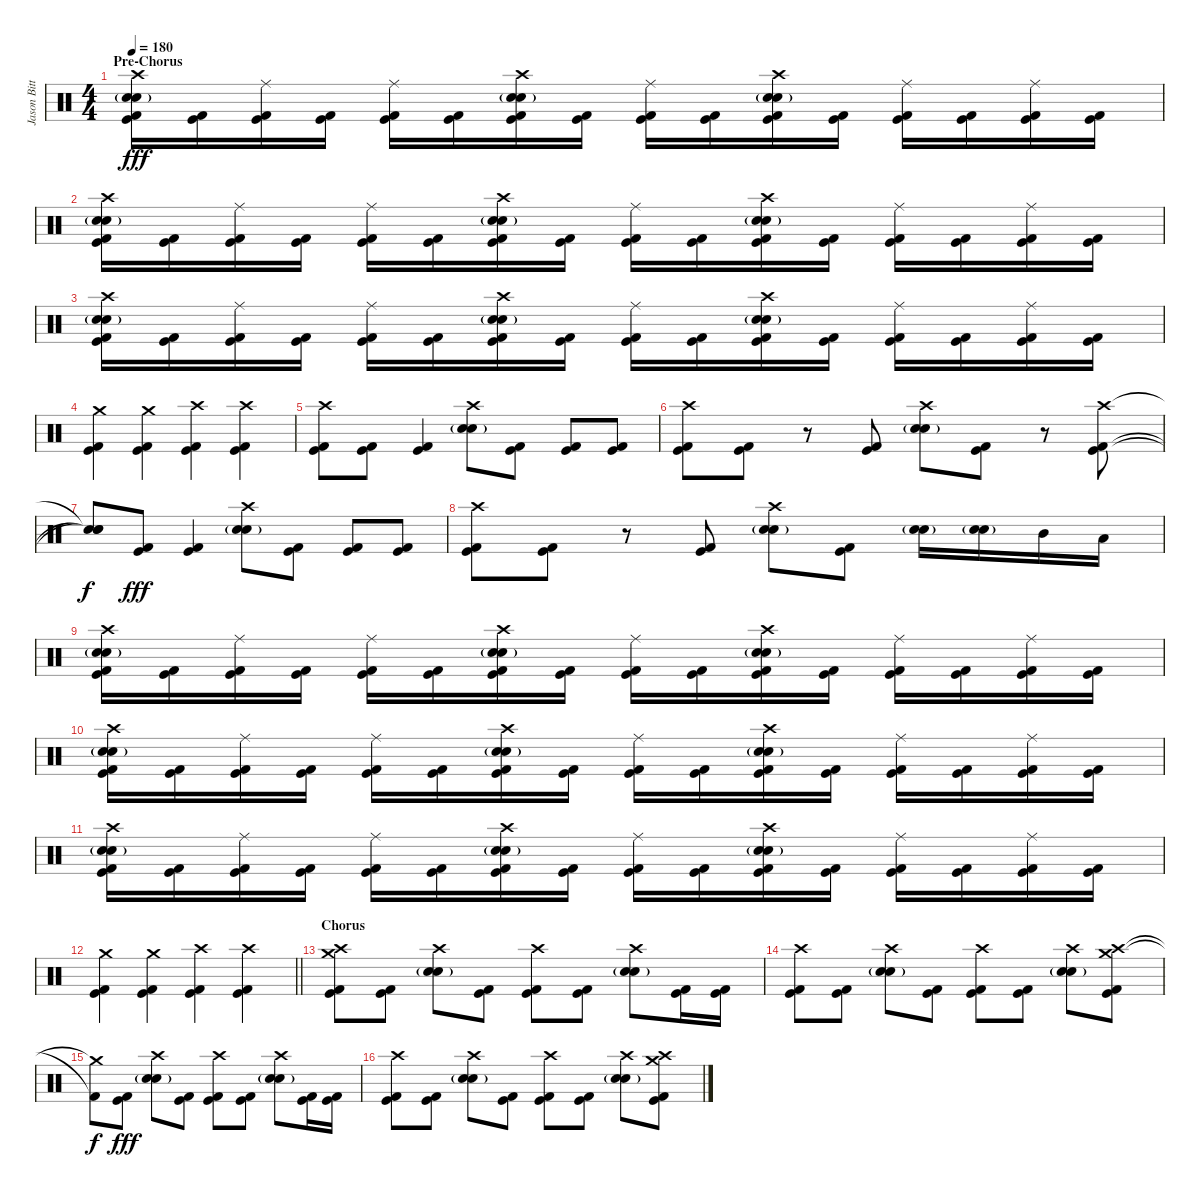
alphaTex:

\track ("Jason Bittner" "Jason Bitt") {instrument percussion}
\staff {score}
\articulation defaults
\ts (4 4)
\section ("" "Pre-Chorus")
\tempo 180
\clef neutral
\ks c
("Crash high (hit)" "Snare (hit) 2"{g} "Electric Snare (hit)" "Kick (hit)" "Kick (hit) 2").16{dy fff} ("Kick (hit)" "Kick (hit) 2").16 ("Ride (middle)" "Kick (hit)" "Kick (hit) 2").16 ("Kick (hit)" "Kick (hit) 2").16 ("Ride (middle)" "Kick (hit)" "Kick (hit) 2").16 ("Kick (hit)" "Kick (hit) 2").16 ("Crash high (hit)" "Snare (hit) 2"{g} "Electric Snare (hit)" "Kick (hit)" "Kick (hit) 2").16 ("Kick (hit)" "Kick (hit) 2").16 ("Ride (middle)" "Kick (hit)" "Kick (hit) 2").16 ("Kick (hit)" "Kick (hit) 2").16 ("Crash high (hit)" "Snare (hit) 2"{g} "Electric Snare (hit)" "Kick (hit)" "Kick (hit) 2").16 ("Kick (hit)" "Kick (hit) 2").16 ("Ride (middle)" "Kick (hit)" "Kick (hit) 2").16 ("Kick (hit)" "Kick (hit) 2").16 ("Ride (middle)" "Kick (hit)" "Kick (hit) 2").16 ("Kick (hit)" "Kick (hit) 2").16 |
("Crash high (hit)" "Snare (hit) 2"{g} "Electric Snare (hit)" "Kick (hit)" "Kick (hit) 2").16 ("Kick (hit)" "Kick (hit) 2").16 ("Ride (middle)" "Kick (hit)" "Kick (hit) 2").16 ("Kick (hit)" "Kick (hit) 2").16 ("Ride (middle)" "Kick (hit)" "Kick (hit) 2").16 ("Kick (hit)" "Kick (hit) 2").16 ("Crash high (hit)" "Snare (hit) 2"{g} "Electric Snare (hit)" "Kick (hit)" "Kick (hit) 2").16 ("Kick (hit)" "Kick (hit) 2").16 ("Ride (middle)" "Kick (hit)" "Kick (hit) 2").16 ("Kick (hit)" "Kick (hit) 2").16 ("Crash high (hit)" "Snare (hit) 2"{g} "Electric Snare (hit)" "Kick (hit)" "Kick (hit) 2").16 ("Kick (hit)" "Kick (hit) 2").16 ("Ride (middle)" "Kick (hit)" "Kick (hit) 2").16 ("Kick (hit)" "Kick (hit) 2").16 ("Ride (middle)" "Kick (hit)" "Kick (hit) 2").16 ("Kick (hit)" "Kick (hit) 2").16 |
("Crash high (hit)" "Snare (hit) 2"{g} "Electric Snare (hit)" "Kick (hit)" "Kick (hit) 2").16 ("Kick (hit)" "Kick (hit) 2").16 ("Ride (middle)" "Kick (hit)" "Kick (hit) 2").16 ("Kick (hit)" "Kick (hit) 2").16 ("Ride (middle)" "Kick (hit)" "Kick (hit) 2").16 ("Kick (hit)" "Kick (hit) 2").16 ("Crash high (hit)" "Snare (hit) 2"{g} "Electric Snare (hit)" "Kick (hit)" "Kick (hit) 2").16 ("Kick (hit)" "Kick (hit) 2").16 ("Ride (middle)" "Kick (hit)" "Kick (hit) 2").16 ("Kick (hit)" "Kick (hit) 2").16 ("Crash high (hit)" "Snare (hit) 2"{g} "Electric Snare (hit)" "Kick (hit)" "Kick (hit) 2").16 ("Kick (hit)" "Kick (hit) 2").16 ("Ride (middle)" "Kick (hit)" "Kick (hit) 2").16 ("Kick (hit)" "Kick (hit) 2").16 ("Ride (middle)" "Kick (hit)" "Kick (hit) 2").16 ("Kick (hit)" "Kick (hit) 2").16 |
("Crash medium (hit)" "Kick (hit)" "Kick (hit) 2").4 ("Crash medium (hit)" "Kick (hit)" "Kick (hit) 2").4 ("Crash high (hit)" "Kick (hit)" "Kick (hit) 2").4 ("Crash high (hit)" "Kick (hit)" "Kick (hit) 2").4 |
("Crash high (hit)" "Kick (hit)" "Kick (hit) 2").8 ("Kick (hit)" "Kick (hit) 2").8 ("Kick (hit)" "Kick (hit) 2").4 ("Crash high (hit)" "Snare (hit) 2"{g} "Electric Snare (hit)").8 ("Kick (hit)" "Kick (hit) 2").8 ("Kick (hit)" "Kick (hit) 2").8 ("Kick (hit)" "Kick (hit) 2").8 |
("Crash high (hit)" "Kick (hit)" "Kick (hit) 2").8 ("Kick (hit)" "Kick (hit) 2").8 r.8 ("Kick (hit)" "Kick (hit) 2").8 ("Crash high (hit)" "Snare (hit) 2"{g} "Electric Snare (hit)").8 ("Kick (hit)" "Kick (hit) 2").8 r.8 ("Crash high (hit)" "Kick (hit)" "Kick (hit) 2").8 |
("Snare (hit)"{t} "Snare (hit)"{t} "Snare (hit)"{t}).8{dy f} ("Kick (hit)" "Kick (hit) 2").8{dy fff} ("Kick (hit)" "Kick (hit) 2").4 ("Crash high (hit)" "Snare (hit) 2"{g} "Electric Snare (hit)").8 ("Kick (hit)" "Kick (hit) 2").8 ("Kick (hit)" "Kick (hit) 2").8 ("Kick (hit)" "Kick (hit) 2").8 |
("Crash high (hit)" "Kick (hit)" "Kick (hit) 2").8 ("Kick (hit)" "Kick (hit) 2").8 r.8 ("Kick (hit)" "Kick (hit) 2").8 ("Crash high (hit)" "Snare (hit) 2"{g} "Electric Snare (hit)").8 ("Kick (hit)" "Kick (hit) 2").8 ("Snare (hit) 2"{g} "Electric Snare (hit)").16 ("Snare (hit) 2"{g} "Electric Snare (hit)").16 "Mid Tom (hit)".16 "Low Tom (hit)".16 |
("Crash high (hit)" "Snare (hit) 2"{g} "Electric Snare (hit)" "Kick (hit)" "Kick (hit) 2").16 ("Kick (hit)" "Kick (hit) 2").16 ("Ride (middle)" "Kick (hit)" "Kick (hit) 2").16 ("Kick (hit)" "Kick (hit) 2").16 ("Ride (middle)" "Kick (hit)" "Kick (hit) 2").16 ("Kick (hit)" "Kick (hit) 2").16 ("Crash high (hit)" "Snare (hit) 2"{g} "Electric Snare (hit)" "Kick (hit)" "Kick (hit) 2").16 ("Kick (hit)" "Kick (hit) 2").16 ("Ride (middle)" "Kick (hit)" "Kick (hit) 2").16 ("Kick (hit)" "Kick (hit) 2").16 ("Crash high (hit)" "Snare (hit) 2"{g} "Electric Snare (hit)" "Kick (hit)" "Kick (hit) 2").16 ("Kick (hit)" "Kick (hit) 2").16 ("Ride (middle)" "Kick (hit)" "Kick (hit) 2").16 ("Kick (hit)" "Kick (hit) 2").16 ("Ride (middle)" "Kick (hit)" "Kick (hit) 2").16 ("Kick (hit)" "Kick (hit) 2").16 |
("Crash high (hit)" "Snare (hit) 2"{g} "Electric Snare (hit)" "Kick (hit)" "Kick (hit) 2").16 ("Kick (hit)" "Kick (hit) 2").16 ("Ride (middle)" "Kick (hit)" "Kick (hit) 2").16 ("Kick (hit)" "Kick (hit) 2").16 ("Ride (middle)" "Kick (hit)" "Kick (hit) 2").16 ("Kick (hit)" "Kick (hit) 2").16 ("Crash high (hit)" "Snare (hit) 2"{g} "Electric Snare (hit)" "Kick (hit)" "Kick (hit) 2").16 ("Kick (hit)" "Kick (hit) 2").16 ("Ride (middle)" "Kick (hit)" "Kick (hit) 2").16 ("Kick (hit)" "Kick (hit) 2").16 ("Crash high (hit)" "Snare (hit) 2"{g} "Electric Snare (hit)" "Kick (hit)" "Kick (hit) 2").16 ("Kick (hit)" "Kick (hit) 2").16 ("Ride (middle)" "Kick (hit)" "Kick (hit) 2").16 ("Kick (hit)" "Kick (hit) 2").16 ("Ride (middle)" "Kick (hit)" "Kick (hit) 2").16 ("Kick (hit)" "Kick (hit) 2").16 |
("Crash high (hit)" "Snare (hit) 2"{g} "Electric Snare (hit)" "Kick (hit)" "Kick (hit) 2").16 ("Kick (hit)" "Kick (hit) 2").16 ("Ride (middle)" "Kick (hit)" "Kick (hit) 2").16 ("Kick (hit)" "Kick (hit) 2").16 ("Ride (middle)" "Kick (hit)" "Kick (hit) 2").16 ("Kick (hit)" "Kick (hit) 2").16 ("Crash high (hit)" "Snare (hit) 2"{g} "Electric Snare (hit)" "Kick (hit)" "Kick (hit) 2").16 ("Kick (hit)" "Kick (hit) 2").16 ("Ride (middle)" "Kick (hit)" "Kick (hit) 2").16 ("Kick (hit)" "Kick (hit) 2").16 ("Crash high (hit)" "Snare (hit) 2"{g} "Electric Snare (hit)" "Kick (hit)" "Kick (hit) 2").16 ("Kick (hit)" "Kick (hit) 2").16 ("Ride (middle)" "Kick (hit)" "Kick (hit) 2").16 ("Kick (hit)" "Kick (hit) 2").16 ("Ride (middle)" "Kick (hit)" "Kick (hit) 2").16 ("Kick (hit)" "Kick (hit) 2").16 |
\barLineRight lightlight
("Crash medium (hit)" "Kick (hit)" "Kick (hit) 2").4 ("Crash medium (hit)" "Kick (hit)" "Kick (hit) 2").4 ("Crash high (hit)" "Kick (hit)" "Kick (hit) 2").4 ("Crash high (hit)" "Kick (hit)" "Kick (hit) 2").4 |
\section ("" "Chorus")
("Crash medium (hit)" "Crash high (hit)" "Kick (hit)" "Kick (hit) 2").8 ("Kick (hit)" "Kick (hit) 2").8 ("Crash high (hit)" "Snare (hit) 2"{g} "Electric Snare (hit)").8 ("Kick (hit)" "Kick (hit) 2").8 ("Crash high (hit)" "Kick (hit)" "Kick (hit) 2").8 ("Kick (hit)" "Kick (hit) 2").8 ("Crash high (hit)" "Snare (hit) 2"{g} "Electric Snare (hit)").8 ("Kick (hit)" "Kick (hit) 2").16 ("Kick (hit)" "Kick (hit) 2").16 |
("Crash high (hit)" "Kick (hit)" "Kick (hit) 2").8 ("Kick (hit)" "Kick (hit) 2").8 ("Crash high (hit)" "Snare (hit) 2"{g} "Electric Snare (hit)").8 ("Kick (hit)" "Kick (hit) 2").8 ("Crash high (hit)" "Kick (hit)" "Kick (hit) 2").8 ("Kick (hit)" "Kick (hit) 2").8 ("Crash high (hit)" "Snare (hit) 2"{g} "Electric Snare (hit)").8 ("Crash medium (hit)" "Crash high (hit)" "Kick (hit)" "Kick (hit) 2").8 |
("Crash medium (hit)"{t} "Kick (hit) 2"{t}).8{dy f} ("Kick (hit)" "Kick (hit) 2").8{dy fff} ("Crash high (hit)" "Snare (hit) 2"{g} "Electric Snare (hit)").8 ("Kick (hit)" "Kick (hit) 2").8 ("Crash high (hit)" "Kick (hit)" "Kick (hit) 2").8 ("Kick (hit)" "Kick (hit) 2").8 ("Crash high (hit)" "Snare (hit) 2"{g} "Electric Snare (hit)").8 ("Kick (hit)" "Kick (hit) 2").16 ("Kick (hit)" "Kick (hit) 2").16 |
("Crash high (hit)" "Kick (hit)" "Kick (hit) 2").8 ("Kick (hit)" "Kick (hit) 2").8 ("Crash high (hit)" "Snare (hit) 2"{g} "Electric Snare (hit)").8 ("Kick (hit)" "Kick (hit) 2").8 ("Crash high (hit)" "Kick (hit)" "Kick (hit) 2").8 ("Kick (hit)" "Kick (hit) 2").8 ("Crash high (hit)" "Snare (hit) 2"{g} "Electric Snare (hit)").8 ("Crash medium (hit)" "Crash high (hit)" "Kick (hit)" "Kick (hit) 2").8
